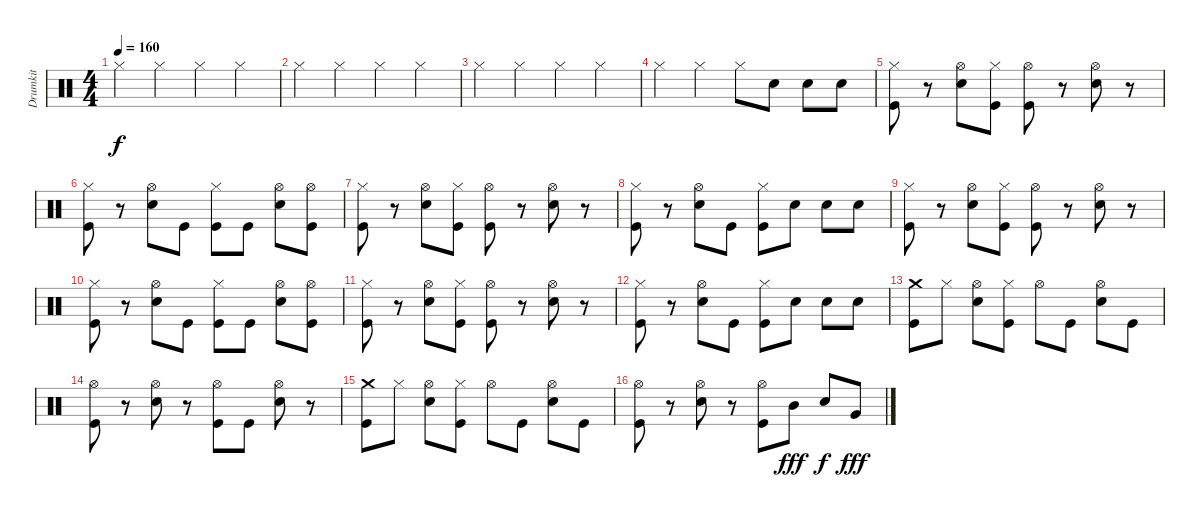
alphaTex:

\track ("Drumkit" "Drumkit") {instrument percussion}
\staff {score}
\articulation defaults
\ts (4 4)
\tempo 160
\clef neutral
\ks c "Hi-Hat (closed)".4{dy f} "Hi-Hat (closed)".4 "Hi-Hat (closed)".4 "Hi-Hat (closed)".4
|
"Hi-Hat (closed)".4 "Hi-Hat (closed)".4 "Hi-Hat (closed)".4 "Hi-Hat (closed)".4 |
"Hi-Hat (closed)".4 "Hi-Hat (closed)".4 "Hi-Hat (closed)".4 "Hi-Hat (closed)".4 |
"Hi-Hat (closed)".4 "Hi-Hat (closed)".4 "Hi-Hat (closed)".8 "Snare (hit) 2".8 "Snare (hit) 2".8 "Snare (hit) 2".8 |
("Kick (hit)" "Hi-Hat (closed)").8 r.8 ("Snare (hit) 2" "Hi-Hat (open)").8 ("Kick (hit)" "Hi-Hat (closed)").8 ("Kick (hit)" "Hi-Hat (open)").8 r.8 ("Snare (hit) 2" "Hi-Hat (open)").8 r.8 |
("Kick (hit)" "Hi-Hat (closed)").8 r.8 ("Snare (hit) 2" "Hi-Hat (open)").8 "Kick (hit)".8 ("Kick (hit)" "Hi-Hat (closed)").8 "Kick (hit)".8 ("Snare (hit) 2" "Hi-Hat (open)").8 ("Hi-Hat (open)" "Kick (hit)").8 |
("Kick (hit)" "Hi-Hat (closed)").8 r.8 ("Snare (hit) 2" "Hi-Hat (open)").8 ("Kick (hit)" "Hi-Hat (closed)").8 ("Kick (hit)" "Hi-Hat (open)").8 r.8 ("Snare (hit) 2" "Hi-Hat (open)").8 r.8 |
("Kick (hit)" "Hi-Hat (closed)").8 r.8 ("Snare (hit) 2" "Hi-Hat (open)").8 "Kick (hit)".8 ("Kick (hit)" "Hi-Hat (closed)").8 "Snare (hit) 2".8 "Snare (hit) 2".8 "Snare (hit) 2".8 |
("Kick (hit)" "Hi-Hat (closed)").8 r.8 ("Snare (hit) 2" "Hi-Hat (open)").8 ("Kick (hit)" "Hi-Hat (closed)").8 ("Kick (hit)" "Hi-Hat (open)").8 r.8 ("Snare (hit) 2" "Hi-Hat (open)").8 r.8 |
("Kick (hit)" "Hi-Hat (closed)").8 r.8 ("Snare (hit) 2" "Hi-Hat (open)").8 "Kick (hit)".8 ("Kick (hit)" "Hi-Hat (closed)").8 "Kick (hit)".8 ("Snare (hit) 2" "Hi-Hat (open)").8 ("Hi-Hat (open)" "Kick (hit)").8 |
("Kick (hit)" "Hi-Hat (closed)").8 r.8 ("Snare (hit) 2" "Hi-Hat (open)").8 ("Kick (hit)" "Hi-Hat (closed)").8 ("Kick (hit)" "Hi-Hat (open)").8 r.8 ("Snare (hit) 2" "Hi-Hat (open)").8 r.8 |
("Kick (hit)" "Hi-Hat (closed)").8 r.8 ("Snare (hit) 2" "Hi-Hat (open)").8 "Kick (hit)".8 ("Kick (hit)" "Hi-Hat (closed)").8 "Snare (hit) 2".8 "Snare (hit) 2".8 "Snare (hit) 2".8 |
("Kick (hit)" "Crash medium (hit)").8 "Hi-Hat (closed)".8 ("Snare (hit) 2" "Hi-Hat (open)").8 ("Kick (hit)" "Hi-Hat (closed)").8 "Hi-Hat (open)".8 "Kick (hit)".8 ("Snare (hit) 2" "Hi-Hat (open)").8 "Kick (hit)".8 |
("Kick (hit)" "Hi-Hat (open)").8 r.8 ("Snare (hit) 2" "Hi-Hat (open)").8 r.8 ("Kick (hit)" "Hi-Hat (open)").8 "Kick (hit)".8 ("Snare (hit) 2" "Hi-Hat (open)").8 r.8 |
("Kick (hit)" "Crash medium (hit)").8 "Hi-Hat (closed)".8 ("Snare (hit) 2" "Hi-Hat (open)").8 ("Kick (hit)" "Hi-Hat (closed)").8 "Hi-Hat (open)".8 "Kick (hit)".8 ("Snare (hit) 2" "Hi-Hat (open)").8 "Kick (hit)".8 |
("Kick (hit)" "Hi-Hat (open)").8 r.8 ("Snare (hit) 2" "Hi-Hat (open)").8 r.8 ("Kick (hit)" "Hi-Hat (open)").8 "Mid Tom (hit)".8{dy fff} "Snare (hit) 2".8{dy f} "Very Low Tom (hit)".8{dy fff}
